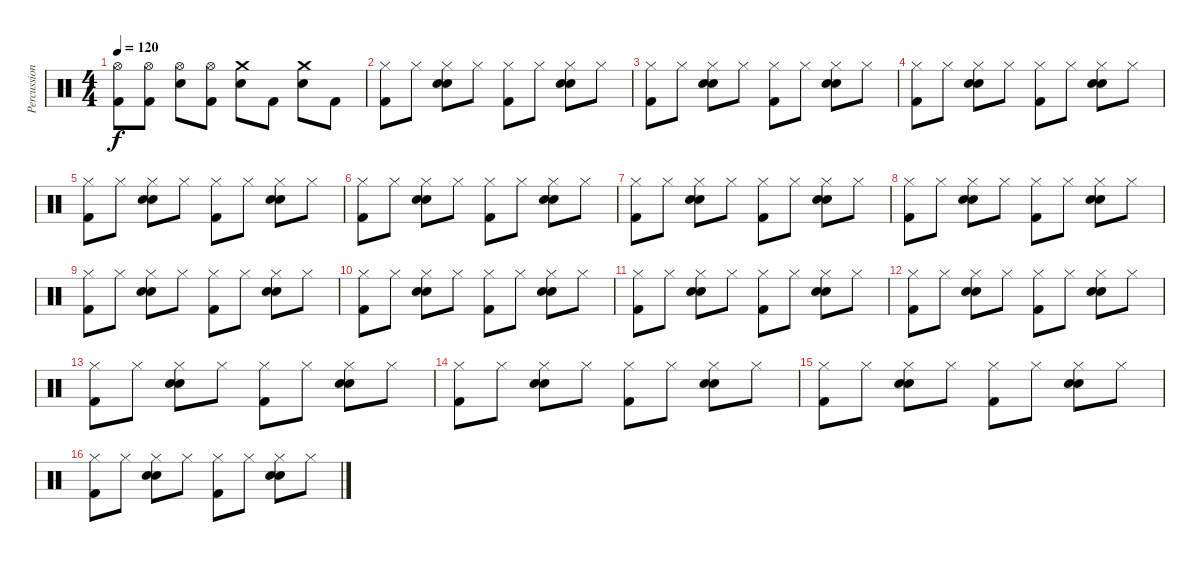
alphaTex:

\track ("Percussions" "Percussion") {instrument percussion}
\staff {score}
\articulation defaults
\ts (4 4)
\tempo 120
\clef neutral
\ks c
("Hi-Hat (open)" "Kick (hit) 2").8{dy f} ("Hi-Hat (open)" "Kick (hit) 2").8 ("Hi-Hat (open)" "Electric Snare (hit)").8 ("Hi-Hat (open)" "Kick (hit) 2").8 ("Crash medium (hit)" "Electric Snare (hit)").8 "Kick (hit) 2".8 ("Crash medium (hit)" "Electric Snare (hit)").8 "Kick (hit) 2".8 |
("Hi-Hat (closed)" "Kick (hit) 2").8 "Hi-Hat (closed)".8 ("Hi-Hat (closed)" "Hand Clap (hit)" "Electric Snare (hit)").8 "Hi-Hat (closed)".8 ("Hi-Hat (closed)" "Kick (hit) 2").8 "Hi-Hat (closed)".8 ("Hi-Hat (closed)" "Hand Clap (hit)" "Electric Snare (hit)").8 "Hi-Hat (closed)".8 |
("Hi-Hat (closed)" "Kick (hit) 2").8 "Hi-Hat (closed)".8 ("Hi-Hat (closed)" "Hand Clap (hit)" "Electric Snare (hit)").8 "Hi-Hat (closed)".8 ("Hi-Hat (closed)" "Kick (hit) 2").8 "Hi-Hat (closed)".8 ("Hi-Hat (closed)" "Hand Clap (hit)" "Electric Snare (hit)").8 "Hi-Hat (closed)".8 |
("Hi-Hat (closed)" "Kick (hit) 2").8 "Hi-Hat (closed)".8 ("Hi-Hat (closed)" "Hand Clap (hit)" "Electric Snare (hit)").8 "Hi-Hat (closed)".8 ("Hi-Hat (closed)" "Kick (hit) 2").8 "Hi-Hat (closed)".8 ("Hi-Hat (closed)" "Hand Clap (hit)" "Electric Snare (hit)").8 "Hi-Hat (closed)".8 |
("Hi-Hat (closed)" "Kick (hit) 2").8 "Hi-Hat (closed)".8 ("Hi-Hat (closed)" "Hand Clap (hit)" "Electric Snare (hit)").8 "Hi-Hat (closed)".8 ("Hi-Hat (closed)" "Kick (hit) 2").8 "Hi-Hat (closed)".8 ("Hi-Hat (closed)" "Hand Clap (hit)" "Electric Snare (hit)").8 "Hi-Hat (closed)".8 |
("Hi-Hat (closed)" "Kick (hit) 2").8 "Hi-Hat (closed)".8 ("Hi-Hat (closed)" "Hand Clap (hit)" "Electric Snare (hit)").8 "Hi-Hat (closed)".8 ("Hi-Hat (closed)" "Kick (hit) 2").8 "Hi-Hat (closed)".8 ("Hi-Hat (closed)" "Hand Clap (hit)" "Electric Snare (hit)").8 "Hi-Hat (closed)".8 |
("Hi-Hat (closed)" "Kick (hit) 2").8 "Hi-Hat (closed)".8 ("Hi-Hat (closed)" "Hand Clap (hit)" "Electric Snare (hit)").8 "Hi-Hat (closed)".8 ("Hi-Hat (closed)" "Kick (hit) 2").8 "Hi-Hat (closed)".8 ("Hi-Hat (closed)" "Hand Clap (hit)" "Electric Snare (hit)").8 "Hi-Hat (closed)".8 |
("Hi-Hat (closed)" "Kick (hit) 2").8 "Hi-Hat (closed)".8 ("Hi-Hat (closed)" "Hand Clap (hit)" "Electric Snare (hit)").8 "Hi-Hat (closed)".8 ("Hi-Hat (closed)" "Kick (hit) 2").8 "Hi-Hat (closed)".8 ("Hi-Hat (closed)" "Hand Clap (hit)" "Electric Snare (hit)").8 "Hi-Hat (closed)".8 |
("Hi-Hat (closed)" "Kick (hit) 2").8 "Hi-Hat (closed)".8 ("Hi-Hat (closed)" "Hand Clap (hit)" "Electric Snare (hit)").8 "Hi-Hat (closed)".8 ("Hi-Hat (closed)" "Kick (hit) 2").8 "Hi-Hat (closed)".8 ("Hi-Hat (closed)" "Hand Clap (hit)" "Electric Snare (hit)").8 "Hi-Hat (closed)".8 |
("Hi-Hat (closed)" "Kick (hit) 2").8 "Hi-Hat (closed)".8 ("Hi-Hat (closed)" "Hand Clap (hit)" "Electric Snare (hit)").8 "Hi-Hat (closed)".8 ("Hi-Hat (closed)" "Kick (hit) 2").8 "Hi-Hat (closed)".8 ("Hi-Hat (closed)" "Hand Clap (hit)" "Electric Snare (hit)").8 "Hi-Hat (closed)".8 |
("Hi-Hat (closed)" "Kick (hit) 2").8 "Hi-Hat (closed)".8 ("Hi-Hat (closed)" "Hand Clap (hit)" "Electric Snare (hit)").8 "Hi-Hat (closed)".8 ("Hi-Hat (closed)" "Kick (hit) 2").8 "Hi-Hat (closed)".8 ("Hi-Hat (closed)" "Hand Clap (hit)" "Electric Snare (hit)").8 "Hi-Hat (closed)".8 |
("Hi-Hat (closed)" "Kick (hit) 2").8 "Hi-Hat (closed)".8 ("Hi-Hat (closed)" "Hand Clap (hit)" "Electric Snare (hit)").8 "Hi-Hat (closed)".8 ("Hi-Hat (closed)" "Kick (hit) 2").8 "Hi-Hat (closed)".8 ("Hi-Hat (closed)" "Hand Clap (hit)" "Electric Snare (hit)").8 "Hi-Hat (closed)".8 |
("Hi-Hat (closed)" "Kick (hit) 2").8 "Hi-Hat (closed)".8 ("Hi-Hat (closed)" "Hand Clap (hit)" "Electric Snare (hit)").8 "Hi-Hat (closed)".8 ("Hi-Hat (closed)" "Kick (hit) 2").8 "Hi-Hat (closed)".8 ("Hi-Hat (closed)" "Hand Clap (hit)" "Electric Snare (hit)").8 "Hi-Hat (closed)".8 |
("Hi-Hat (closed)" "Kick (hit) 2").8 "Hi-Hat (closed)".8 ("Hi-Hat (closed)" "Hand Clap (hit)" "Electric Snare (hit)").8 "Hi-Hat (closed)".8 ("Hi-Hat (closed)" "Kick (hit) 2").8 "Hi-Hat (closed)".8 ("Hi-Hat (closed)" "Hand Clap (hit)" "Electric Snare (hit)").8 "Hi-Hat (closed)".8 |
("Hi-Hat (closed)" "Kick (hit) 2").8 "Hi-Hat (closed)".8 ("Hi-Hat (closed)" "Hand Clap (hit)" "Electric Snare (hit)").8 "Hi-Hat (closed)".8 ("Hi-Hat (closed)" "Kick (hit) 2").8 "Hi-Hat (closed)".8 ("Hi-Hat (closed)" "Hand Clap (hit)" "Electric Snare (hit)").8 "Hi-Hat (closed)".8 |
("Hi-Hat (closed)" "Kick (hit) 2").8 "Hi-Hat (closed)".8 ("Hi-Hat (closed)" "Hand Clap (hit)" "Electric Snare (hit)").8 "Hi-Hat (closed)".8 ("Hi-Hat (closed)" "Kick (hit) 2").8 "Hi-Hat (closed)".8 ("Hi-Hat (closed)" "Hand Clap (hit)" "Electric Snare (hit)").8 "Hi-Hat (closed)".8
